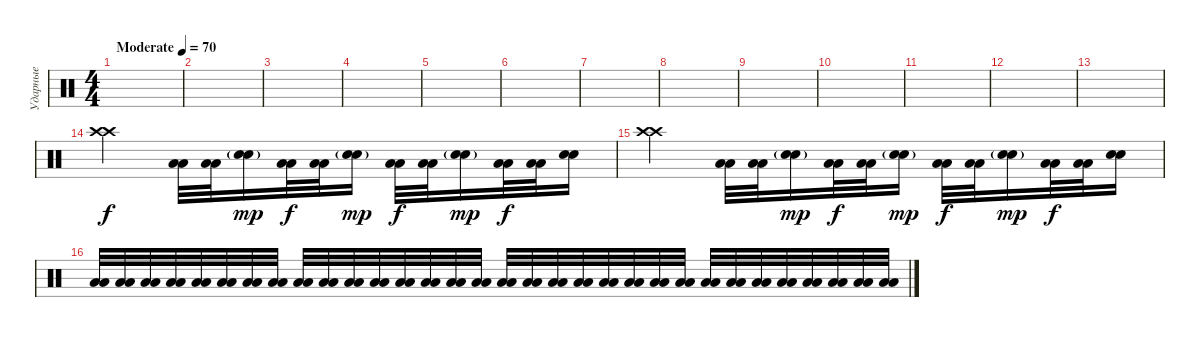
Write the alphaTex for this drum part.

\track ("Ударные" "Ударные") {instrument percussion}
\staff {score}
\articulation defaults
\ts (4 4)
\tempo (70 "Moderate")
\clef neutral
\ks c
|
|
|
|
|
|
|
|
|
|
|
|
|
("Crash high (hit)" "Crash high (hit)").2 ("Low Floor Tom (hit)" "Low Floor Tom (hit)").32 ("Low Floor Tom (hit)" "Low Floor Tom (hit)").32 ("Electric Snare (hit)"{g} "Electric Snare (hit)"{g}).16{dy mp} ("Low Floor Tom (hit)" "Low Floor Tom (hit)").32{dy f} ("Low Floor Tom (hit)" "Low Floor Tom (hit)").32 ("Electric Snare (hit)"{g} "Electric Snare (hit)"{g}).16{dy mp} ("Low Floor Tom (hit)" "Low Floor Tom (hit)").32{dy f} ("Low Floor Tom (hit)" "Low Floor Tom (hit)").32 ("Electric Snare (hit)"{g} "Electric Snare (hit)"{g}).16{dy mp} ("Low Floor Tom (hit)" "Low Floor Tom (hit)").32{dy f} ("Low Floor Tom (hit)" "Low Floor Tom (hit)").32 ("Electric Snare (hit)" "Electric Snare (hit)").16 |
("Crash high (hit)" "Crash high (hit)").2 ("Low Floor Tom (hit)" "Low Floor Tom (hit)").32 ("Low Floor Tom (hit)" "Low Floor Tom (hit)").32 ("Electric Snare (hit)"{g} "Electric Snare (hit)"{g}).16{dy mp} ("Low Floor Tom (hit)" "Low Floor Tom (hit)").32{dy f} ("Low Floor Tom (hit)" "Low Floor Tom (hit)").32 ("Electric Snare (hit)"{g} "Electric Snare (hit)"{g}).16{dy mp} ("Low Floor Tom (hit)" "Low Floor Tom (hit)").32{dy f} ("Low Floor Tom (hit)" "Low Floor Tom (hit)").32 ("Electric Snare (hit)"{g} "Electric Snare (hit)"{g}).16{dy mp} ("Low Floor Tom (hit)" "Low Floor Tom (hit)").32{dy f} ("Low Floor Tom (hit)" "Low Floor Tom (hit)").32 ("Electric Snare (hit)" "Electric Snare (hit)").16 |
("Low Floor Tom (hit)" "Low Floor Tom (hit)").32 ("Low Floor Tom (hit)" "Low Floor Tom (hit)").32 ("Low Floor Tom (hit)" "Low Floor Tom (hit)").32 ("Low Floor Tom (hit)" "Low Floor Tom (hit)").32 ("Low Floor Tom (hit)" "Low Floor Tom (hit)").32 ("Low Floor Tom (hit)" "Low Floor Tom (hit)").32 ("Low Floor Tom (hit)" "Low Floor Tom (hit)").32 ("Low Floor Tom (hit)" "Low Floor Tom (hit)").32 ("Low Floor Tom (hit)" "Low Floor Tom (hit)").32 ("Low Floor Tom (hit)" "Low Floor Tom (hit)").32 ("Low Floor Tom (hit)" "Low Floor Tom (hit)").32 ("Low Floor Tom (hit)" "Low Floor Tom (hit)").32 ("Low Floor Tom (hit)" "Low Floor Tom (hit)").32 ("Low Floor Tom (hit)" "Low Floor Tom (hit)").32 ("Low Floor Tom (hit)" "Low Floor Tom (hit)").32 ("Low Floor Tom (hit)" "Low Floor Tom (hit)").32 ("Low Floor Tom (hit)" "Low Floor Tom (hit)").32 ("Low Floor Tom (hit)" "Low Floor Tom (hit)").32 ("Low Floor Tom (hit)" "Low Floor Tom (hit)").32 ("Low Floor Tom (hit)" "Low Floor Tom (hit)").32 ("Low Floor Tom (hit)" "Low Floor Tom (hit)").32 ("Low Floor Tom (hit)" "Low Floor Tom (hit)").32 ("Low Floor Tom (hit)" "Low Floor Tom (hit)").32 ("Low Floor Tom (hit)" "Low Floor Tom (hit)").32 ("Low Floor Tom (hit)" "Low Floor Tom (hit)").32 ("Low Floor Tom (hit)" "Low Floor Tom (hit)").32 ("Low Floor Tom (hit)" "Low Floor Tom (hit)").32 ("Low Floor Tom (hit)" "Low Floor Tom (hit)").32 ("Low Floor Tom (hit)" "Low Floor Tom (hit)").32 ("Low Floor Tom (hit)" "Low Floor Tom (hit)").32 ("Low Floor Tom (hit)" "Low Floor Tom (hit)").32 ("Low Floor Tom (hit)" "Low Floor Tom (hit)").32
